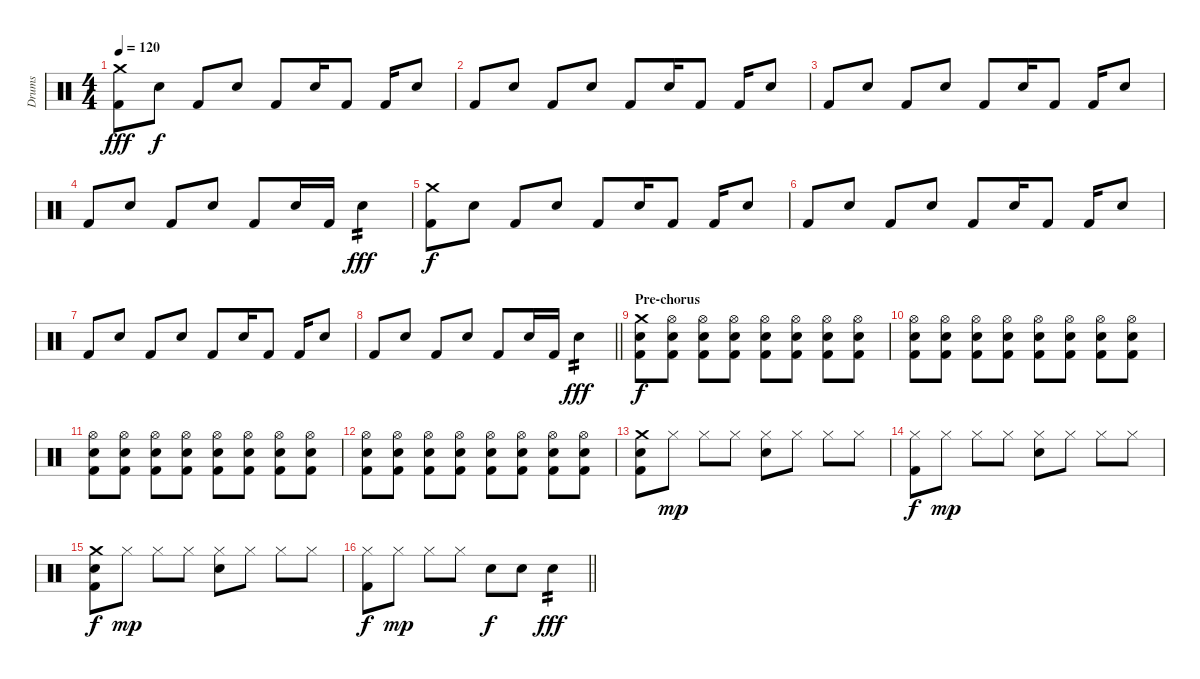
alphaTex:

\track ("Drums" "Drums") {instrument percussion}
\staff {score}
\articulation defaults
\ts (4 4)
\tempo 120
\clef neutral
\ks c
("Crash medium (hit)" "Kick (hit) 2").8{dy fff} "Snare (hit) 2".8{dy f} "Kick (hit) 2".8 "Snare (hit) 2".8 "Kick (hit) 2".8 "Snare (hit) 2".16 "Kick (hit) 2".8 "Kick (hit) 2".16 "Snare (hit) 2".8 |
"Kick (hit) 2".8 "Snare (hit) 2".8 "Kick (hit) 2".8 "Snare (hit) 2".8 "Kick (hit) 2".8 "Snare (hit) 2".16 "Kick (hit) 2".8 "Kick (hit) 2".16 "Snare (hit) 2".8 |
"Kick (hit) 2".8 "Snare (hit) 2".8 "Kick (hit) 2".8 "Snare (hit) 2".8 "Kick (hit) 2".8 "Snare (hit) 2".16 "Kick (hit) 2".8 "Kick (hit) 2".16 "Snare (hit) 2".8 |
"Kick (hit) 2".8 "Snare (hit) 2".8 "Kick (hit) 2".8 "Snare (hit) 2".8 "Kick (hit) 2".8 "Snare (hit) 2".16 "Kick (hit) 2".16 "Snare (hit) 2".4{tp 2 dy fff} |
("Crash medium (hit)" "Kick (hit) 2").8{dy f} "Snare (hit) 2".8 "Kick (hit) 2".8 "Snare (hit) 2".8 "Kick (hit) 2".8 "Snare (hit) 2".16 "Kick (hit) 2".8 "Kick (hit) 2".16 "Snare (hit) 2".8 |
"Kick (hit) 2".8 "Snare (hit) 2".8 "Kick (hit) 2".8 "Snare (hit) 2".8 "Kick (hit) 2".8 "Snare (hit) 2".16 "Kick (hit) 2".8 "Kick (hit) 2".16 "Snare (hit) 2".8 |
"Kick (hit) 2".8 "Snare (hit) 2".8 "Kick (hit) 2".8 "Snare (hit) 2".8 "Kick (hit) 2".8 "Snare (hit) 2".16 "Kick (hit) 2".8 "Kick (hit) 2".16 "Snare (hit) 2".8 |
\barLineRight lightlight "Kick (hit) 2".8 "Snare (hit) 2".8 "Kick (hit) 2".8 "Snare (hit) 2".8 "Kick (hit) 2".8 "Snare (hit) 2".16 "Kick (hit) 2".16 "Snare (hit) 2".4{tp 2 dy fff}
|
\section ("" "Pre-chorus")
("Crash medium (hit)" "Snare (hit) 2" "Kick (hit) 2").8{dy f} ("Hi-Hat (open)" "Snare (hit) 2" "Kick (hit) 2").8 ("Hi-Hat (open)" "Snare (hit) 2" "Kick (hit) 2").8 ("Hi-Hat (open)" "Snare (hit) 2" "Kick (hit) 2").8 ("Hi-Hat (open)" "Snare (hit) 2" "Kick (hit) 2").8 ("Hi-Hat (open)" "Snare (hit) 2" "Kick (hit) 2").8 ("Hi-Hat (open)" "Snare (hit) 2" "Kick (hit) 2").8 ("Hi-Hat (open)" "Snare (hit) 2" "Kick (hit) 2").8 |
("Hi-Hat (open)" "Snare (hit) 2" "Kick (hit) 2").8 ("Hi-Hat (open)" "Snare (hit) 2" "Kick (hit) 2").8 ("Hi-Hat (open)" "Snare (hit) 2" "Kick (hit) 2").8 ("Hi-Hat (open)" "Snare (hit) 2" "Kick (hit) 2").8 ("Hi-Hat (open)" "Snare (hit) 2" "Kick (hit) 2").8 ("Hi-Hat (open)" "Snare (hit) 2" "Kick (hit) 2").8 ("Hi-Hat (open)" "Snare (hit) 2" "Kick (hit) 2").8 ("Hi-Hat (open)" "Snare (hit) 2" "Kick (hit) 2").8 |
("Hi-Hat (open)" "Snare (hit) 2" "Kick (hit) 2").8 ("Hi-Hat (open)" "Snare (hit) 2" "Kick (hit) 2").8 ("Hi-Hat (open)" "Snare (hit) 2" "Kick (hit) 2").8 ("Hi-Hat (open)" "Snare (hit) 2" "Kick (hit) 2").8 ("Hi-Hat (open)" "Snare (hit) 2" "Kick (hit) 2").8 ("Hi-Hat (open)" "Snare (hit) 2" "Kick (hit) 2").8 ("Hi-Hat (open)" "Snare (hit) 2" "Kick (hit) 2").8 ("Hi-Hat (open)" "Snare (hit) 2" "Kick (hit) 2").8 |
("Hi-Hat (open)" "Snare (hit) 2" "Kick (hit) 2").8 ("Hi-Hat (open)" "Snare (hit) 2" "Kick (hit) 2").8 ("Hi-Hat (open)" "Snare (hit) 2" "Kick (hit) 2").8 ("Hi-Hat (open)" "Snare (hit) 2" "Kick (hit) 2").8 ("Hi-Hat (open)" "Snare (hit) 2" "Kick (hit) 2").8 ("Hi-Hat (open)" "Snare (hit) 2" "Kick (hit) 2").8 ("Hi-Hat (open)" "Snare (hit) 2" "Kick (hit) 2").8 ("Hi-Hat (open)" "Snare (hit) 2" "Kick (hit) 2").8 |
("Crash medium (hit)" "Snare (hit) 2" "Kick (hit) 2").8 "Hi-Hat (closed)".8{dy mp} "Hi-Hat (closed)".8 "Hi-Hat (closed)".8 ("Hi-Hat (closed)" "Snare (hit) 2").8 "Hi-Hat (closed)".8 "Hi-Hat (closed)".8 "Hi-Hat (closed)".8 |
("Hi-Hat (closed)" "Kick (hit) 2").8{dy f} "Hi-Hat (closed)".8{dy mp} "Hi-Hat (closed)".8 "Hi-Hat (closed)".8 ("Hi-Hat (closed)" "Snare (hit) 2").8 "Hi-Hat (closed)".8 "Hi-Hat (closed)".8 "Hi-Hat (closed)".8 |
("Crash medium (hit)" "Snare (hit) 2" "Kick (hit) 2").8{dy f} "Hi-Hat (closed)".8{dy mp} "Hi-Hat (closed)".8 "Hi-Hat (closed)".8 ("Hi-Hat (closed)" "Snare (hit) 2").8 "Hi-Hat (closed)".8 "Hi-Hat (closed)".8 "Hi-Hat (closed)".8 |
\barLineRight lightlight
("Hi-Hat (closed)" "Kick (hit) 2").8{dy f} "Hi-Hat (closed)".8{dy mp} "Hi-Hat (closed)".8 "Hi-Hat (closed)".8 "Snare (hit) 2".8{dy f} "Snare (hit) 2".8 "Snare (hit) 2".4{tp 2 dy fff}
